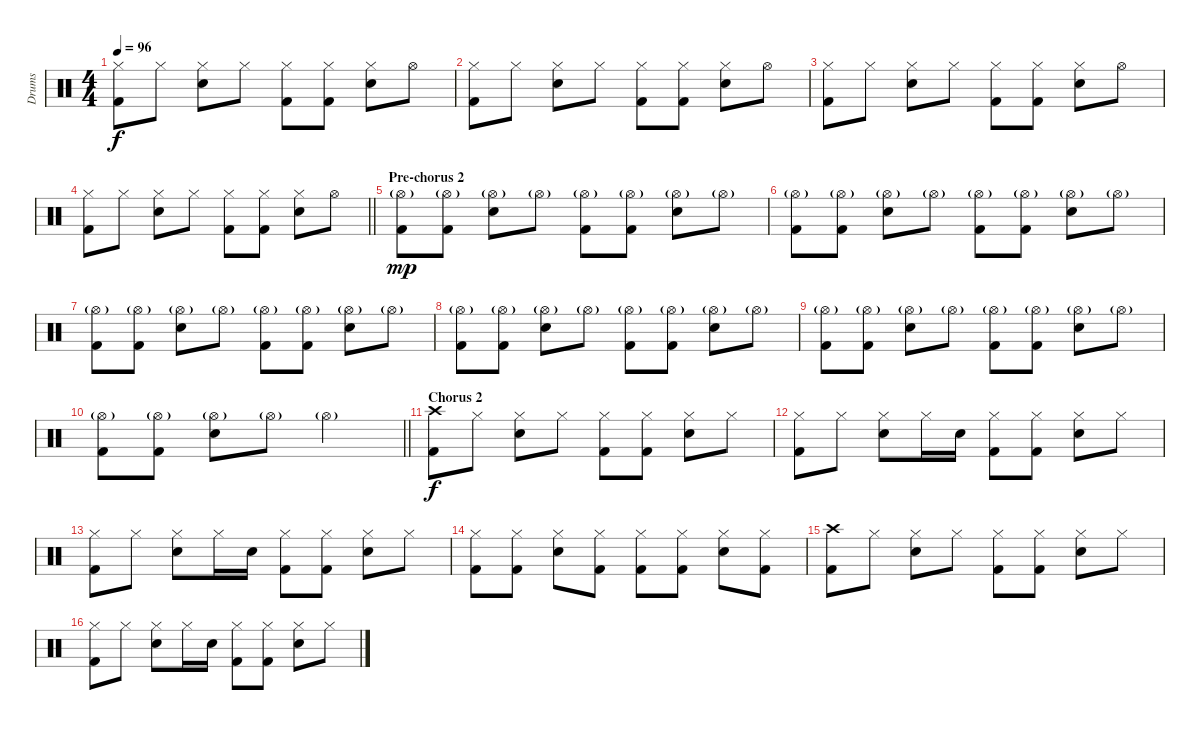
\track ("Drums" "Drums") {instrument percussion}
\staff {score}
\articulation defaults
\ts (4 4)
\tempo 96
\clef neutral
\ks c
("Hi-Hat (closed)" "Kick (hit) 2").8{dy f} "Hi-Hat (closed)".8 ("Hi-Hat (closed)" "Electric Snare (hit)").8 "Hi-Hat (closed)".8 ("Hi-Hat (closed)" "Kick (hit) 2").8 ("Hi-Hat (closed)" "Kick (hit) 2").8 ("Hi-Hat (closed)" "Electric Snare (hit)").8 "Hi-Hat (open)".8 |
("Hi-Hat (closed)" "Kick (hit) 2").8 "Hi-Hat (closed)".8 ("Hi-Hat (closed)" "Electric Snare (hit)").8 "Hi-Hat (closed)".8 ("Hi-Hat (closed)" "Kick (hit) 2").8 ("Hi-Hat (closed)" "Kick (hit) 2").8 ("Hi-Hat (closed)" "Electric Snare (hit)").8 "Hi-Hat (open)".8 |
("Hi-Hat (closed)" "Kick (hit) 2").8 "Hi-Hat (closed)".8 ("Hi-Hat (closed)" "Electric Snare (hit)").8 "Hi-Hat (closed)".8 ("Hi-Hat (closed)" "Kick (hit) 2").8 ("Hi-Hat (closed)" "Kick (hit) 2").8 ("Hi-Hat (closed)" "Electric Snare (hit)").8 "Hi-Hat (open)".8 |
\barLineRight lightlight
("Hi-Hat (closed)" "Kick (hit) 2").8 "Hi-Hat (closed)".8 ("Hi-Hat (closed)" "Electric Snare (hit)").8 "Hi-Hat (closed)".8 ("Hi-Hat (closed)" "Kick (hit) 2").8 ("Hi-Hat (closed)" "Kick (hit) 2").8 ("Hi-Hat (closed)" "Electric Snare (hit)").8 "Hi-Hat (open)".8 |
\section ("" "Pre-chorus 2")
("Hi-Hat (open)"{g} "Kick (hit) 2").8{dy mp} ("Hi-Hat (open)"{g} "Kick (hit) 2").8 ("Hi-Hat (open)"{g} "Electric Snare (hit)").8 "Hi-Hat (open)"{g}.8 ("Hi-Hat (open)"{g} "Kick (hit) 2").8 ("Hi-Hat (open)"{g} "Kick (hit) 2").8 ("Hi-Hat (open)"{g} "Electric Snare (hit)").8 "Hi-Hat (open)"{g}.8 |
("Hi-Hat (open)"{g} "Kick (hit) 2").8 ("Hi-Hat (open)"{g} "Kick (hit) 2").8 ("Hi-Hat (open)"{g} "Electric Snare (hit)").8 "Hi-Hat (open)"{g}.8 ("Hi-Hat (open)"{g} "Kick (hit) 2").8 ("Hi-Hat (open)"{g} "Kick (hit) 2").8 ("Hi-Hat (open)"{g} "Electric Snare (hit)").8 "Hi-Hat (open)"{g}.8 |
("Hi-Hat (open)"{g} "Kick (hit) 2").8 ("Hi-Hat (open)"{g} "Kick (hit) 2").8 ("Hi-Hat (open)"{g} "Electric Snare (hit)").8 "Hi-Hat (open)"{g}.8 ("Hi-Hat (open)"{g} "Kick (hit) 2").8 ("Hi-Hat (open)"{g} "Kick (hit) 2").8 ("Hi-Hat (open)"{g} "Electric Snare (hit)").8 "Hi-Hat (open)"{g}.8 |
("Hi-Hat (open)"{g} "Kick (hit) 2").8 ("Hi-Hat (open)"{g} "Kick (hit) 2").8 ("Hi-Hat (open)"{g} "Electric Snare (hit)").8 "Hi-Hat (open)"{g}.8 ("Hi-Hat (open)"{g} "Kick (hit) 2").8 ("Hi-Hat (open)"{g} "Kick (hit) 2").8 ("Hi-Hat (open)"{g} "Electric Snare (hit)").8 "Hi-Hat (open)"{g}.8 |
("Hi-Hat (open)"{g} "Kick (hit) 2").8 ("Hi-Hat (open)"{g} "Kick (hit) 2").8 ("Hi-Hat (open)"{g} "Electric Snare (hit)").8 "Hi-Hat (open)"{g}.8 ("Hi-Hat (open)"{g} "Kick (hit) 2").8 ("Hi-Hat (open)"{g} "Kick (hit) 2").8 ("Hi-Hat (open)"{g} "Electric Snare (hit)").8 "Hi-Hat (open)"{g}.8 |
\barLineRight lightlight
("Hi-Hat (open)"{g} "Kick (hit) 2").8 ("Hi-Hat (open)"{g} "Kick (hit) 2").8 ("Hi-Hat (open)"{g} "Electric Snare (hit)").8 "Hi-Hat (open)"{g}.8 "Hi-Hat (open)"{g}.2 |
\section ("" "Chorus 2")
("Crash high (hit)" "Kick (hit) 2").8{dy f} "Hi-Hat (closed)".8 ("Hi-Hat (closed)" "Electric Snare (hit)").8 "Hi-Hat (closed)".8 ("Hi-Hat (closed)" "Kick (hit) 2").8 ("Hi-Hat (closed)" "Kick (hit) 2").8 ("Hi-Hat (closed)" "Electric Snare (hit)").8 "Hi-Hat (closed)".8 |
("Hi-Hat (closed)" "Kick (hit) 2").8 "Hi-Hat (closed)".8 ("Hi-Hat (closed)" "Electric Snare (hit)").8 "Hi-Hat (closed)".16 "Electric Snare (hit)".16 ("Hi-Hat (closed)" "Kick (hit) 2").8 ("Hi-Hat (closed)" "Kick (hit) 2").8 ("Hi-Hat (closed)" "Electric Snare (hit)").8 "Hi-Hat (closed)".8 |
("Hi-Hat (closed)" "Kick (hit) 2").8 "Hi-Hat (closed)".8 ("Hi-Hat (closed)" "Electric Snare (hit)").8 "Hi-Hat (closed)".16 "Electric Snare (hit)".16 ("Hi-Hat (closed)" "Kick (hit) 2").8 ("Hi-Hat (closed)" "Kick (hit) 2").8 ("Hi-Hat (closed)" "Electric Snare (hit)").8 "Hi-Hat (closed)".8 |
("Hi-Hat (closed)" "Kick (hit) 2").8 ("Hi-Hat (closed)" "Kick (hit) 2").8 ("Hi-Hat (closed)" "Electric Snare (hit)").8 ("Hi-Hat (closed)" "Kick (hit) 2").8 ("Hi-Hat (closed)" "Kick (hit) 2").8 ("Hi-Hat (closed)" "Kick (hit) 2").8 ("Hi-Hat (closed)" "Electric Snare (hit)").8 ("Hi-Hat (closed)" "Kick (hit) 2").8 |
("Crash high (hit)" "Kick (hit) 2").8 "Hi-Hat (closed)".8 ("Hi-Hat (closed)" "Electric Snare (hit)").8 "Hi-Hat (closed)".8 ("Hi-Hat (closed)" "Kick (hit) 2").8 ("Hi-Hat (closed)" "Kick (hit) 2").8 ("Hi-Hat (closed)" "Electric Snare (hit)").8 "Hi-Hat (closed)".8 |
("Hi-Hat (closed)" "Kick (hit) 2").8 "Hi-Hat (closed)".8 ("Hi-Hat (closed)" "Electric Snare (hit)").8 "Hi-Hat (closed)".16 "Electric Snare (hit)".16 ("Hi-Hat (closed)" "Kick (hit) 2").8 ("Hi-Hat (closed)" "Kick (hit) 2").8 ("Hi-Hat (closed)" "Electric Snare (hit)").8 "Hi-Hat (closed)".8
